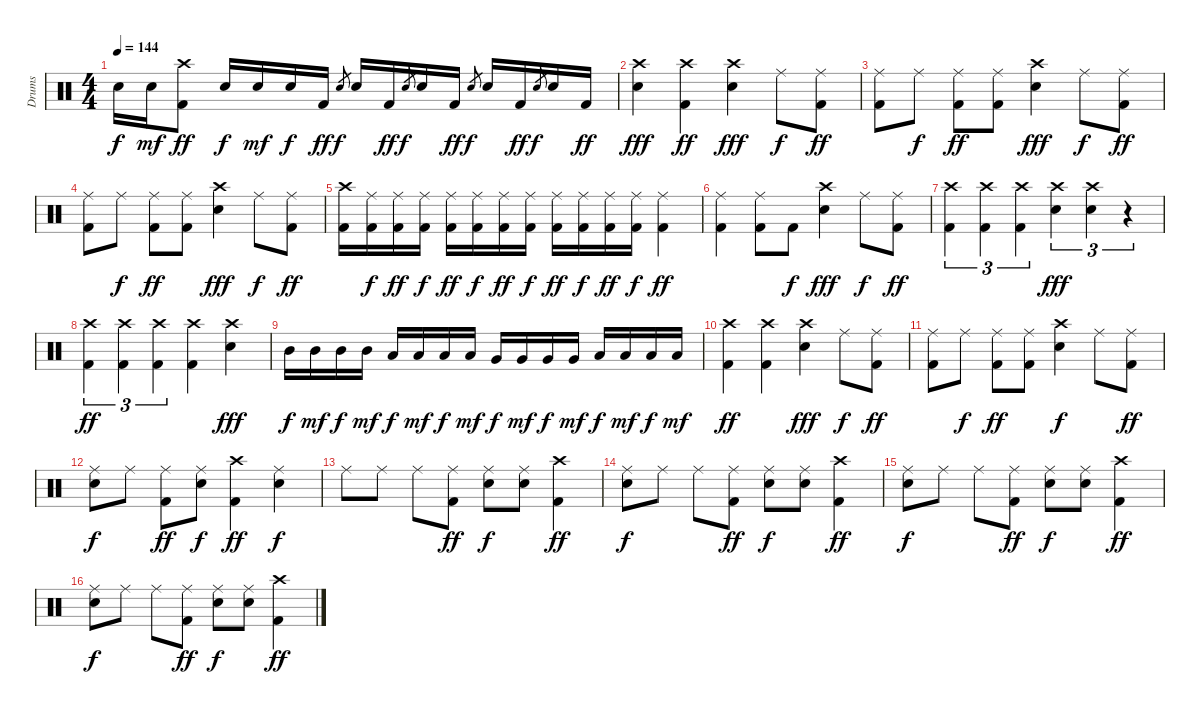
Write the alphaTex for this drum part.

\track ("Drums" "Drums") {instrument percussion}
\staff {score}
\articulation defaults
\ts (4 4)
\tempo 144
\clef neutral
\ks c "Snare (hit) 2".16{dy f} "Snare (hit) 2".16{dy mf}
("Crash high (hit)" "Kick (hit) 2").8{dy ff} "Snare (hit) 2".16{dy f} "Snare (hit) 2".16{dy mf} "Snare (hit) 2".16{dy f} "Kick (hit) 2".16{dy ff} "Snare (hit) 2".8{gr dy f} "Snare (hit) 2".16 "Kick (hit) 2".16{dy ff} "Snare (hit) 2".8{gr dy f} "Snare (hit) 2".16 "Kick (hit) 2".16{dy ff} "Snare (hit) 2".8{gr dy f} "Snare (hit) 2".16 "Kick (hit) 2".16{dy ff} "Snare (hit) 2".8{gr dy f} "Snare (hit) 2".16 "Kick (hit) 2".16{dy ff} |
("Crash high (hit)" "Snare (hit) 2").4{dy fff} ("Crash high (hit)" "Kick (hit) 2").4{dy ff} ("Crash high (hit)" "Snare (hit) 2").4{dy fff} "Ride (middle)".8{dy f} ("Ride (middle)" "Kick (hit) 2").8{dy ff} |
("Ride (middle)" "Kick (hit) 2").8 "Ride (middle)".8{dy f} ("Ride (middle)" "Kick (hit) 2").8{dy ff} ("Ride (middle)" "Kick (hit) 2").8 ("Crash high (hit)" "Snare (hit) 2").4{dy fff} "Ride (middle)".8{dy f} ("Ride (middle)" "Kick (hit) 2").8{dy ff} |
("Ride (middle)" "Kick (hit) 2").8 "Ride (middle)".8{dy f} ("Ride (middle)" "Kick (hit) 2").8{dy ff} ("Ride (middle)" "Kick (hit) 2").8 ("Crash high (hit)" "Snare (hit) 2").4{dy fff} "Ride (middle)".8{dy f} ("Ride (middle)" "Kick (hit) 2").8{dy ff} |
("Crash high (hit)" "Kick (hit) 2").16 ("Ride (middle)" "Kick (hit) 2").16{dy f} ("Ride (middle)" "Kick (hit) 2").16{dy ff} ("Ride (middle)" "Kick (hit) 2").16{dy f} ("Ride (middle)" "Kick (hit) 2").16{dy ff} ("Ride (middle)" "Kick (hit) 2").16{dy f} ("Ride (middle)" "Kick (hit) 2").16{dy ff} ("Ride (middle)" "Kick (hit) 2").16{dy f} ("Ride (middle)" "Kick (hit) 2").16{dy ff} ("Ride (middle)" "Kick (hit) 2").16{dy f} ("Ride (middle)" "Kick (hit) 2").16{dy ff} ("Ride (middle)" "Kick (hit) 2").16{dy f} ("Ride (middle)" "Kick (hit) 2").4{dy ff} |
("Ride (middle)" "Kick (hit) 2").4 ("Ride (middle)" "Kick (hit) 2").8 "Kick (hit) 2".8{dy f} ("Crash high (hit)" "Snare (hit) 2").4{dy fff} "Ride (middle)".8{dy f} ("Ride (middle)" "Kick (hit) 2").8{dy ff} |
("Crash high (hit)" "Kick (hit) 2").4{tu (3 2)} ("Crash high (hit)" "Kick (hit) 2").4{tu (3 2)} ("Crash high (hit)" "Kick (hit) 2").4{tu (3 2)} ("Crash high (hit)" "Snare (hit) 2").4{tu (3 2) dy fff} ("Crash high (hit)" "Snare (hit) 2").4{tu (3 2)} r.4{tu (3 2)} |
("Crash high (hit)" "Kick (hit) 2").4{tu (3 2) dy ff} ("Crash high (hit)" "Kick (hit) 2").4{tu (3 2)} ("Crash high (hit)" "Kick (hit) 2").4{tu (3 2)} ("Crash high (hit)" "Kick (hit) 2").4 ("Crash high (hit)" "Snare (hit) 2").4{dy fff} |
"Mid Tom (hit)".16{dy f} "Mid Tom (hit)".16{dy mf} "Mid Tom (hit)".16{dy f} "Mid Tom (hit)".16{dy mf} "Low Tom (hit)".16{dy f} "Low Tom (hit)".16{dy mf} "Low Tom (hit)".16{dy f} "Low Tom (hit)".16{dy mf} "Very Low Tom (hit)".16{dy f} "Very Low Tom (hit)".16{dy mf} "Very Low Tom (hit)".16{dy f} "Very Low Tom (hit)".16{dy mf} "Low Floor Tom (hit)".16{dy f} "Low Floor Tom (hit)".16{dy mf} "Low Floor Tom (hit)".16{dy f} "Low Floor Tom (hit)".16{dy mf} |
("Crash high (hit)" "Kick (hit) 2").4{dy ff} ("Crash high (hit)" "Kick (hit) 2").4 ("Crash high (hit)" "Snare (hit) 2").4{dy fff} "Ride (middle)".8{dy f} ("Ride (middle)" "Kick (hit) 2").8{dy ff} |
("Ride (middle)" "Kick (hit) 2").8 "Ride (middle)".8{dy f} ("Ride (middle)" "Kick (hit) 2").8{dy ff} ("Ride (middle)" "Kick (hit) 2").8 ("Crash high (hit)" "Snare (hit) 2").4{dy f} "Ride (middle)".8 ("Ride (middle)" "Kick (hit) 2").8{dy ff} |
("Ride (middle)" "Snare (hit) 2").8{dy f} "Ride (middle)".8 ("Ride (middle)" "Kick (hit) 2").8{dy ff} ("Ride (middle)" "Snare (hit) 2").8{dy f} ("Crash high (hit)" "Kick (hit) 2").4{dy ff} ("Ride (middle)" "Snare (hit) 2").4{dy f} |
"Ride (middle)".8 "Ride (middle)".8 "Ride (middle)".8 ("Ride (middle)" "Kick (hit) 2").8{dy ff} ("Ride (middle)" "Snare (hit) 2").8{dy f} ("Ride (middle)" "Snare (hit) 2").8 ("Crash high (hit)" "Kick (hit) 2").4{dy ff} |
("Ride (middle)" "Snare (hit) 2").8{dy f} "Ride (middle)".8 "Ride (middle)".8 ("Ride (middle)" "Kick (hit) 2").8{dy ff} ("Ride (middle)" "Snare (hit) 2").8{dy f} ("Ride (middle)" "Snare (hit) 2").8 ("Crash high (hit)" "Kick (hit) 2").4{dy ff} |
("Ride (middle)" "Snare (hit) 2").8{dy f} "Ride (middle)".8 "Ride (middle)".8 ("Ride (middle)" "Kick (hit) 2").8{dy ff} ("Ride (middle)" "Snare (hit) 2").8{dy f} ("Ride (middle)" "Snare (hit) 2").8 ("Crash high (hit)" "Kick (hit) 2").4{dy ff} |
("Ride (middle)" "Snare (hit) 2").8{dy f} "Ride (middle)".8 "Ride (middle)".8 ("Ride (middle)" "Kick (hit) 2").8{dy ff} ("Ride (middle)" "Snare (hit) 2").8{dy f} ("Ride (middle)" "Snare (hit) 2").8 ("Crash high (hit)" "Kick (hit) 2").4{dy ff}
